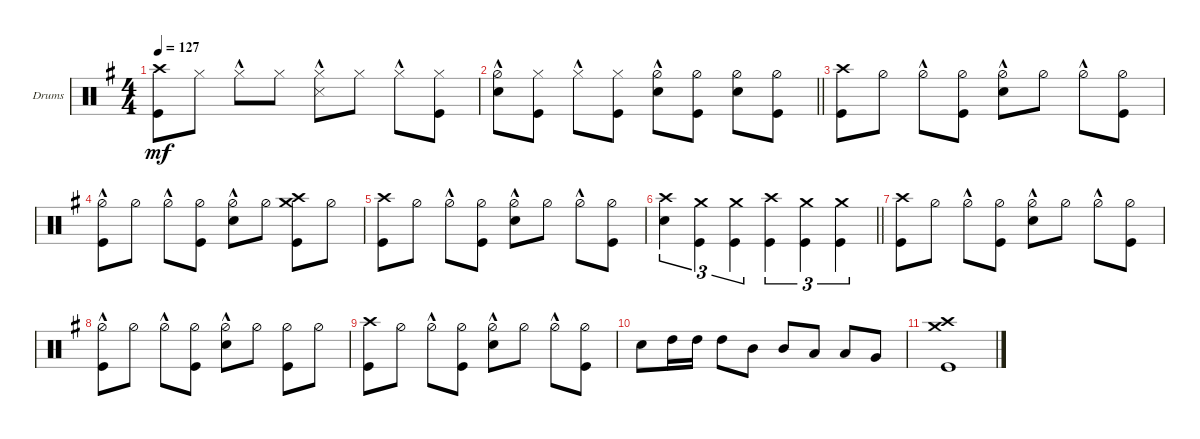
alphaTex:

\bracketExtendMode groupsimilarinstruments
\firstSystemTrackNameOrientation horizontal
\otherSystemsTrackNameOrientation horizontal
\track ("drums (Anton Zulganov)" "Drums") {instrument percussion}
\staff {score}
\articulation defaults
\ts (4 4)
\tempo 127
\clef neutral
\ks eminor
("Kick (hit)" "Crash high (hit)").8{dy mf} "Hi-Hat (closed)".8 "Hi-Hat (closed)"{hac}.8 "Hi-Hat (closed)".8 ("Hi-Hat (closed)"{hac} "Snare (side stick) 3").8 "Hi-Hat (closed)".8 "Hi-Hat (closed)"{hac}.8 ("Hi-Hat (closed)" "Kick (hit)").8 |
\barLineRight lightlight
("Hi-Hat (half)"{hac} "Snare (hit) 2").8 ("Hi-Hat (closed)" "Kick (hit)").8 "Hi-Hat (closed)"{hac}.8 ("Hi-Hat (closed)" "Kick (hit)").8 ("Hi-Hat (half)"{hac} "Snare (hit) 2").8 ("Hi-Hat (half)" "Kick (hit)").8 ("Snare (hit) 2" "Hi-Hat (half)").8 ("Kick (hit)" "Hi-Hat (half)").8 |
("Kick (hit)" "Crash high (hit)").8 "Hi-Hat (half)".8 "Hi-Hat (half)"{hac}.8 ("Hi-Hat (half)" "Kick (hit)").8 ("Hi-Hat (half)"{hac} "Snare (hit) 2").8 "Hi-Hat (half)".8 "Hi-Hat (half)"{hac}.8 ("Hi-Hat (half)" "Kick (hit)").8 |
("Hi-Hat (half)"{hac} "Kick (hit)").8 "Hi-Hat (half)".8 "Hi-Hat (half)"{hac}.8 ("Hi-Hat (half)" "Kick (hit)").8 ("Hi-Hat (half)"{hac} "Snare (hit) 2").8 "Hi-Hat (half)".8 ("Kick (hit)" "Crash medium (hit)" "Crash high (hit)").8 "Hi-Hat (half)".8 |
("Kick (hit)" "Crash high (hit)").8 "Hi-Hat (half)".8 "Hi-Hat (half)"{hac}.8 ("Hi-Hat (half)" "Kick (hit)").8 ("Hi-Hat (half)"{hac} "Snare (hit) 2").8 "Hi-Hat (half)".8 "Hi-Hat (half)"{hac}.8 ("Hi-Hat (half)" "Kick (hit)").8 |
\barLineRight lightlight
("Snare (hit) 2" "Crash high (hit)").4{tu (3 2)} ("Kick (hit)" "Crash medium (hit)").4{tu (3 2)} ("Crash medium (hit)" "Kick (hit)").4{tu (3 2)} ("Kick (hit)" "Crash high (hit)").4{tu (3 2)} ("Kick (hit)" "Crash medium (hit)").4{tu (3 2)} ("Kick (hit)" "Crash medium (hit)").4{tu (3 2)} |
("Kick (hit)" "Crash high (hit)").8 "Hi-Hat (half)".8 "Hi-Hat (half)"{hac}.8 ("Hi-Hat (half)" "Kick (hit)").8 ("Hi-Hat (half)"{hac} "Snare (hit) 2").8 "Hi-Hat (half)".8 "Hi-Hat (half)"{hac}.8 ("Hi-Hat (half)" "Kick (hit)").8 |
("Hi-Hat (half)"{hac} "Kick (hit)").8 "Hi-Hat (half)".8 "Hi-Hat (half)"{hac}.8 ("Hi-Hat (half)" "Kick (hit)").8 ("Hi-Hat (half)"{hac} "Snare (hit) 2").8 "Hi-Hat (half)".8 ("Kick (hit)" "Hi-Hat (half)").8 "Hi-Hat (half)".8 |
("Kick (hit)" "Crash high (hit)").8 "Hi-Hat (half)".8 "Hi-Hat (half)"{hac}.8 ("Hi-Hat (half)" "Kick (hit)").8 ("Hi-Hat (half)"{hac} "Snare (hit) 2").8 "Hi-Hat (half)".8 "Hi-Hat (half)"{hac}.8 ("Hi-Hat (half)" "Kick (hit)").8 |
"Snare (hit) 2".8 "High Tom (hit)".16 "High Tom (hit)".16 "High Tom (hit)".8 "Mid Tom (hit)".8 "Mid Tom (hit)".8 "Low Tom (hit)".8 "Low Tom (hit)".8 "Very Low Tom (hit)".8 |
("Crash medium (hit)" "Kick (hit)" "Crash high (hit)").1
